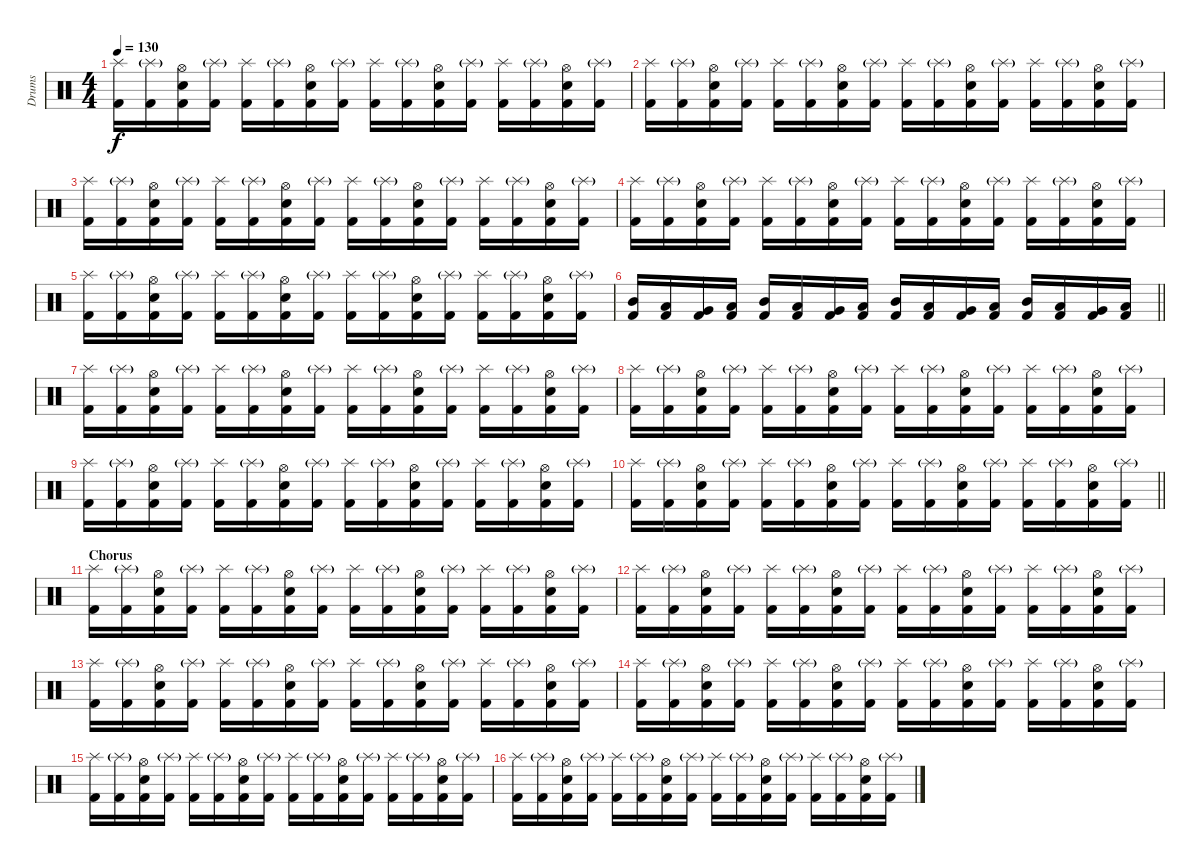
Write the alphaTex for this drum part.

\track ("Drums" "Drums") {instrument percussion}
\staff {score}
\articulation defaults
\ts (4 4)
\tempo 130
\clef neutral
\ks c
("Splash (hit)" "Kick (hit) 2").16{dy f} ("Splash (hit)"{g} "Kick (hit) 2").16 ("Hi-Hat (open)" "Electric Snare (hit)" "Kick (hit) 2").16 ("Splash (hit)"{g} "Kick (hit) 2").16 ("Splash (hit)" "Kick (hit) 2").16 ("Splash (hit)"{g} "Kick (hit) 2").16 ("Hi-Hat (open)" "Electric Snare (hit)" "Kick (hit) 2").16 ("Splash (hit)"{g} "Kick (hit) 2").16 ("Splash (hit)" "Kick (hit) 2").16 ("Splash (hit)"{g} "Kick (hit) 2").16 ("Hi-Hat (open)" "Electric Snare (hit)" "Kick (hit) 2").16 ("Splash (hit)"{g} "Kick (hit) 2").16 ("Splash (hit)" "Kick (hit) 2").16 ("Splash (hit)"{g} "Kick (hit) 2").16 ("Hi-Hat (open)" "Electric Snare (hit)" "Kick (hit) 2").16 ("Splash (hit)"{g} "Kick (hit) 2").16 |
("Splash (hit)" "Kick (hit) 2").16 ("Splash (hit)"{g} "Kick (hit) 2").16 ("Hi-Hat (open)" "Electric Snare (hit)" "Kick (hit) 2").16 ("Splash (hit)"{g} "Kick (hit) 2").16 ("Splash (hit)" "Kick (hit) 2").16 ("Splash (hit)"{g} "Kick (hit) 2").16 ("Hi-Hat (open)" "Electric Snare (hit)" "Kick (hit) 2").16 ("Splash (hit)"{g} "Kick (hit) 2").16 ("Splash (hit)" "Kick (hit) 2").16 ("Splash (hit)"{g} "Kick (hit) 2").16 ("Hi-Hat (open)" "Electric Snare (hit)" "Kick (hit) 2").16 ("Splash (hit)"{g} "Kick (hit) 2").16 ("Splash (hit)" "Kick (hit) 2").16 ("Splash (hit)"{g} "Kick (hit) 2").16 ("Hi-Hat (open)" "Electric Snare (hit)" "Kick (hit) 2").16 ("Splash (hit)"{g} "Kick (hit) 2").16 |
("Splash (hit)" "Kick (hit) 2").16 ("Splash (hit)"{g} "Kick (hit) 2").16 ("Hi-Hat (open)" "Electric Snare (hit)" "Kick (hit) 2").16 ("Splash (hit)"{g} "Kick (hit) 2").16 ("Splash (hit)" "Kick (hit) 2").16 ("Splash (hit)"{g} "Kick (hit) 2").16 ("Hi-Hat (open)" "Electric Snare (hit)" "Kick (hit) 2").16 ("Splash (hit)"{g} "Kick (hit) 2").16 ("Splash (hit)" "Kick (hit) 2").16 ("Splash (hit)"{g} "Kick (hit) 2").16 ("Hi-Hat (open)" "Electric Snare (hit)" "Kick (hit) 2").16 ("Splash (hit)"{g} "Kick (hit) 2").16 ("Splash (hit)" "Kick (hit) 2").16 ("Splash (hit)"{g} "Kick (hit) 2").16 ("Hi-Hat (open)" "Electric Snare (hit)" "Kick (hit) 2").16 ("Splash (hit)"{g} "Kick (hit) 2").16 |
("Splash (hit)" "Kick (hit) 2").16 ("Splash (hit)"{g} "Kick (hit) 2").16 ("Hi-Hat (open)" "Electric Snare (hit)" "Kick (hit) 2").16 ("Splash (hit)"{g} "Kick (hit) 2").16 ("Splash (hit)" "Kick (hit) 2").16 ("Splash (hit)"{g} "Kick (hit) 2").16 ("Hi-Hat (open)" "Electric Snare (hit)" "Kick (hit) 2").16 ("Splash (hit)"{g} "Kick (hit) 2").16 ("Splash (hit)" "Kick (hit) 2").16 ("Splash (hit)"{g} "Kick (hit) 2").16 ("Hi-Hat (open)" "Electric Snare (hit)" "Kick (hit) 2").16 ("Splash (hit)"{g} "Kick (hit) 2").16 ("Splash (hit)" "Kick (hit) 2").16 ("Splash (hit)"{g} "Kick (hit) 2").16 ("Hi-Hat (open)" "Electric Snare (hit)" "Kick (hit) 2").16 ("Splash (hit)"{g} "Kick (hit) 2").16 |
("Splash (hit)" "Kick (hit) 2").16 ("Splash (hit)"{g} "Kick (hit) 2").16 ("Hi-Hat (open)" "Electric Snare (hit)" "Kick (hit) 2").16 ("Splash (hit)"{g} "Kick (hit) 2").16 ("Splash (hit)" "Kick (hit) 2").16 ("Splash (hit)"{g} "Kick (hit) 2").16 ("Hi-Hat (open)" "Electric Snare (hit)" "Kick (hit) 2").16 ("Splash (hit)"{g} "Kick (hit) 2").16 ("Splash (hit)" "Kick (hit) 2").16 ("Splash (hit)"{g} "Kick (hit) 2").16 ("Hi-Hat (open)" "Electric Snare (hit)" "Kick (hit) 2").16 ("Splash (hit)"{g} "Kick (hit) 2").16 ("Splash (hit)" "Kick (hit) 2").16 ("Splash (hit)"{g} "Kick (hit) 2").16 ("Hi-Hat (open)" "Electric Snare (hit)" "Kick (hit) 2").16 ("Splash (hit)"{g} "Kick (hit) 2").16 |
\barLineRight lightlight
("Mid Tom (hit)" "Kick (hit) 2").16 ("Low Tom (hit)" "Kick (hit) 2").16 ("Very Low Tom (hit)" "Kick (hit) 2").16 ("Low Floor Tom (hit)" "Kick (hit) 2").16 ("Mid Tom (hit)" "Kick (hit) 2").16 ("Low Tom (hit)" "Kick (hit) 2").16 ("Very Low Tom (hit)" "Kick (hit) 2").16 ("Low Floor Tom (hit)" "Kick (hit) 2").16 ("Mid Tom (hit)" "Kick (hit) 2").16 ("Low Tom (hit)" "Kick (hit) 2").16 ("Very Low Tom (hit)" "Kick (hit) 2").16 ("Low Floor Tom (hit)" "Kick (hit) 2").16 ("Mid Tom (hit)" "Kick (hit) 2").16 ("Low Tom (hit)" "Kick (hit) 2").16 ("Very Low Tom (hit)" "Kick (hit) 2").16 ("Low Floor Tom (hit)" "Kick (hit) 2").16 |
("Splash (hit)" "Kick (hit) 2").16 ("Splash (hit)"{g} "Kick (hit) 2").16 ("Hi-Hat (open)" "Electric Snare (hit)" "Kick (hit) 2").16 ("Splash (hit)"{g} "Kick (hit) 2").16 ("Splash (hit)" "Kick (hit) 2").16 ("Splash (hit)"{g} "Kick (hit) 2").16 ("Hi-Hat (open)" "Electric Snare (hit)" "Kick (hit) 2").16 ("Splash (hit)"{g} "Kick (hit) 2").16 ("Splash (hit)" "Kick (hit) 2").16 ("Splash (hit)"{g} "Kick (hit) 2").16 ("Hi-Hat (open)" "Electric Snare (hit)" "Kick (hit) 2").16 ("Splash (hit)"{g} "Kick (hit) 2").16 ("Splash (hit)" "Kick (hit) 2").16 ("Splash (hit)"{g} "Kick (hit) 2").16 ("Hi-Hat (open)" "Electric Snare (hit)" "Kick (hit) 2").16 ("Splash (hit)"{g} "Kick (hit) 2").16 |
("Splash (hit)" "Kick (hit) 2").16 ("Splash (hit)"{g} "Kick (hit) 2").16 ("Hi-Hat (open)" "Electric Snare (hit)" "Kick (hit) 2").16 ("Splash (hit)"{g} "Kick (hit) 2").16 ("Splash (hit)" "Kick (hit) 2").16 ("Splash (hit)"{g} "Kick (hit) 2").16 ("Hi-Hat (open)" "Electric Snare (hit)" "Kick (hit) 2").16 ("Splash (hit)"{g} "Kick (hit) 2").16 ("Splash (hit)" "Kick (hit) 2").16 ("Splash (hit)"{g} "Kick (hit) 2").16 ("Hi-Hat (open)" "Electric Snare (hit)" "Kick (hit) 2").16 ("Splash (hit)"{g} "Kick (hit) 2").16 ("Splash (hit)" "Kick (hit) 2").16 ("Splash (hit)"{g} "Kick (hit) 2").16 ("Hi-Hat (open)" "Electric Snare (hit)" "Kick (hit) 2").16 ("Splash (hit)"{g} "Kick (hit) 2").16 |
("Splash (hit)" "Kick (hit) 2").16 ("Splash (hit)"{g} "Kick (hit) 2").16 ("Hi-Hat (open)" "Electric Snare (hit)" "Kick (hit) 2").16 ("Splash (hit)"{g} "Kick (hit) 2").16 ("Splash (hit)" "Kick (hit) 2").16 ("Splash (hit)"{g} "Kick (hit) 2").16 ("Hi-Hat (open)" "Electric Snare (hit)" "Kick (hit) 2").16 ("Splash (hit)"{g} "Kick (hit) 2").16 ("Splash (hit)" "Kick (hit) 2").16 ("Splash (hit)"{g} "Kick (hit) 2").16 ("Hi-Hat (open)" "Electric Snare (hit)" "Kick (hit) 2").16 ("Splash (hit)"{g} "Kick (hit) 2").16 ("Splash (hit)" "Kick (hit) 2").16 ("Splash (hit)"{g} "Kick (hit) 2").16 ("Hi-Hat (open)" "Electric Snare (hit)" "Kick (hit) 2").16 ("Splash (hit)"{g} "Kick (hit) 2").16 |
\barLineRight lightlight
("Splash (hit)" "Kick (hit) 2").16 ("Splash (hit)"{g} "Kick (hit) 2").16 ("Hi-Hat (open)" "Electric Snare (hit)" "Kick (hit) 2").16 ("Splash (hit)"{g} "Kick (hit) 2").16 ("Splash (hit)" "Kick (hit) 2").16 ("Splash (hit)"{g} "Kick (hit) 2").16 ("Hi-Hat (open)" "Electric Snare (hit)" "Kick (hit) 2").16 ("Splash (hit)"{g} "Kick (hit) 2").16 ("Splash (hit)" "Kick (hit) 2").16 ("Splash (hit)"{g} "Kick (hit) 2").16 ("Hi-Hat (open)" "Electric Snare (hit)" "Kick (hit) 2").16 ("Splash (hit)"{g} "Kick (hit) 2").16 ("Splash (hit)" "Kick (hit) 2").16 ("Splash (hit)"{g} "Kick (hit) 2").16 ("Hi-Hat (open)" "Electric Snare (hit)" "Kick (hit) 2").16 ("Splash (hit)"{g} "Kick (hit) 2").16 |
\section ("" "Chorus")
("Splash (hit)" "Kick (hit) 2").16 ("Splash (hit)"{g} "Kick (hit) 2").16 ("Hi-Hat (open)" "Electric Snare (hit)" "Kick (hit) 2").16 ("Splash (hit)"{g} "Kick (hit) 2").16 ("Splash (hit)" "Kick (hit) 2").16 ("Splash (hit)"{g} "Kick (hit) 2").16 ("Hi-Hat (open)" "Electric Snare (hit)" "Kick (hit) 2").16 ("Splash (hit)"{g} "Kick (hit) 2").16 ("Splash (hit)" "Kick (hit) 2").16 ("Splash (hit)"{g} "Kick (hit) 2").16 ("Hi-Hat (open)" "Electric Snare (hit)" "Kick (hit) 2").16 ("Splash (hit)"{g} "Kick (hit) 2").16 ("Splash (hit)" "Kick (hit) 2").16 ("Splash (hit)"{g} "Kick (hit) 2").16 ("Hi-Hat (open)" "Electric Snare (hit)" "Kick (hit) 2").16 ("Splash (hit)"{g} "Kick (hit) 2").16 |
("Splash (hit)" "Kick (hit) 2").16 ("Splash (hit)"{g} "Kick (hit) 2").16 ("Hi-Hat (open)" "Electric Snare (hit)" "Kick (hit) 2").16 ("Splash (hit)"{g} "Kick (hit) 2").16 ("Splash (hit)" "Kick (hit) 2").16 ("Splash (hit)"{g} "Kick (hit) 2").16 ("Hi-Hat (open)" "Electric Snare (hit)" "Kick (hit) 2").16 ("Splash (hit)"{g} "Kick (hit) 2").16 ("Splash (hit)" "Kick (hit) 2").16 ("Splash (hit)"{g} "Kick (hit) 2").16 ("Hi-Hat (open)" "Electric Snare (hit)" "Kick (hit) 2").16 ("Splash (hit)"{g} "Kick (hit) 2").16 ("Splash (hit)" "Kick (hit) 2").16 ("Splash (hit)"{g} "Kick (hit) 2").16 ("Hi-Hat (open)" "Electric Snare (hit)" "Kick (hit) 2").16 ("Splash (hit)"{g} "Kick (hit) 2").16 |
("Splash (hit)" "Kick (hit) 2").16 ("Splash (hit)"{g} "Kick (hit) 2").16 ("Hi-Hat (open)" "Electric Snare (hit)" "Kick (hit) 2").16 ("Splash (hit)"{g} "Kick (hit) 2").16 ("Splash (hit)" "Kick (hit) 2").16 ("Splash (hit)"{g} "Kick (hit) 2").16 ("Hi-Hat (open)" "Electric Snare (hit)" "Kick (hit) 2").16 ("Splash (hit)"{g} "Kick (hit) 2").16 ("Splash (hit)" "Kick (hit) 2").16 ("Splash (hit)"{g} "Kick (hit) 2").16 ("Hi-Hat (open)" "Electric Snare (hit)" "Kick (hit) 2").16 ("Splash (hit)"{g} "Kick (hit) 2").16 ("Splash (hit)" "Kick (hit) 2").16 ("Splash (hit)"{g} "Kick (hit) 2").16 ("Hi-Hat (open)" "Electric Snare (hit)" "Kick (hit) 2").16 ("Splash (hit)"{g} "Kick (hit) 2").16 |
("Splash (hit)" "Kick (hit) 2").16 ("Splash (hit)"{g} "Kick (hit) 2").16 ("Hi-Hat (open)" "Electric Snare (hit)" "Kick (hit) 2").16 ("Splash (hit)"{g} "Kick (hit) 2").16 ("Splash (hit)" "Kick (hit) 2").16 ("Splash (hit)"{g} "Kick (hit) 2").16 ("Hi-Hat (open)" "Electric Snare (hit)" "Kick (hit) 2").16 ("Splash (hit)"{g} "Kick (hit) 2").16 ("Splash (hit)" "Kick (hit) 2").16 ("Splash (hit)"{g} "Kick (hit) 2").16 ("Hi-Hat (open)" "Electric Snare (hit)" "Kick (hit) 2").16 ("Splash (hit)"{g} "Kick (hit) 2").16 ("Splash (hit)" "Kick (hit) 2").16 ("Splash (hit)"{g} "Kick (hit) 2").16 ("Hi-Hat (open)" "Electric Snare (hit)" "Kick (hit) 2").16 ("Splash (hit)"{g} "Kick (hit) 2").16 |
("Splash (hit)" "Kick (hit) 2").16 ("Splash (hit)"{g} "Kick (hit) 2").16 ("Hi-Hat (open)" "Electric Snare (hit)" "Kick (hit) 2").16 ("Splash (hit)"{g} "Kick (hit) 2").16 ("Splash (hit)" "Kick (hit) 2").16 ("Splash (hit)"{g} "Kick (hit) 2").16 ("Hi-Hat (open)" "Electric Snare (hit)" "Kick (hit) 2").16 ("Splash (hit)"{g} "Kick (hit) 2").16 ("Splash (hit)" "Kick (hit) 2").16 ("Splash (hit)"{g} "Kick (hit) 2").16 ("Hi-Hat (open)" "Electric Snare (hit)" "Kick (hit) 2").16 ("Splash (hit)"{g} "Kick (hit) 2").16 ("Splash (hit)" "Kick (hit) 2").16 ("Splash (hit)"{g} "Kick (hit) 2").16 ("Hi-Hat (open)" "Electric Snare (hit)" "Kick (hit) 2").16 ("Splash (hit)"{g} "Kick (hit) 2").16 |
("Splash (hit)" "Kick (hit) 2").16 ("Splash (hit)"{g} "Kick (hit) 2").16 ("Hi-Hat (open)" "Electric Snare (hit)" "Kick (hit) 2").16 ("Splash (hit)"{g} "Kick (hit) 2").16 ("Splash (hit)" "Kick (hit) 2").16 ("Splash (hit)"{g} "Kick (hit) 2").16 ("Hi-Hat (open)" "Electric Snare (hit)" "Kick (hit) 2").16 ("Splash (hit)"{g} "Kick (hit) 2").16 ("Splash (hit)" "Kick (hit) 2").16 ("Splash (hit)"{g} "Kick (hit) 2").16 ("Hi-Hat (open)" "Electric Snare (hit)" "Kick (hit) 2").16 ("Splash (hit)"{g} "Kick (hit) 2").16 ("Splash (hit)" "Kick (hit) 2").16 ("Splash (hit)"{g} "Kick (hit) 2").16 ("Hi-Hat (open)" "Electric Snare (hit)" "Kick (hit) 2").16 ("Splash (hit)"{g} "Kick (hit) 2").16
